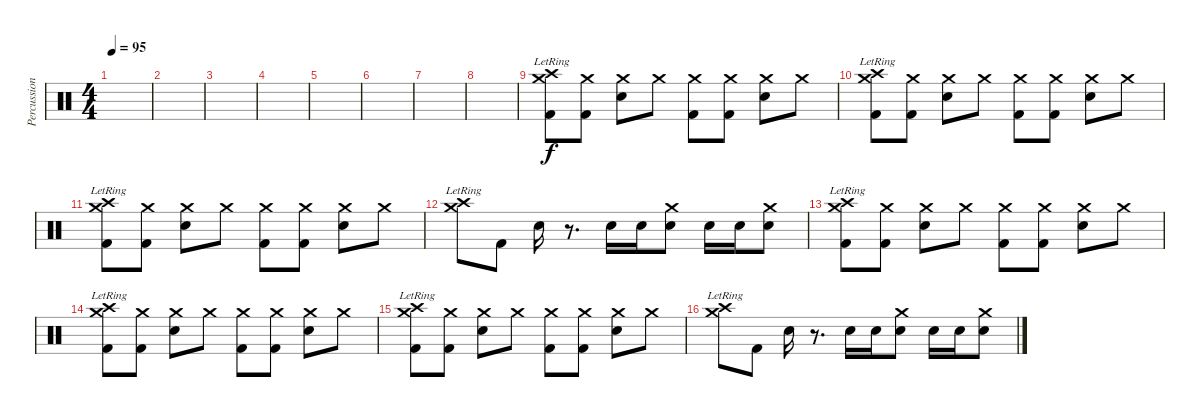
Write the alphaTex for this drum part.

\track ("Percussion" "Percussion") {instrument percussion}
\staff {score}
\articulation defaults
\ts (4 4)
\tempo 95
\clef neutral
\ks c
|
|
|
|
|
|
|
|
("Crash high (hit)"{lr} "Crash medium (hit)" "Kick (hit) 2").8 ("Crash medium (hit)" "Kick (hit) 2").8 ("Crash medium (hit)" "Electric Snare (hit)").8 "Crash medium (hit)".8 ("Crash medium (hit)" "Kick (hit) 2").8 ("Crash medium (hit)" "Kick (hit) 2").8 ("Crash medium (hit)" "Electric Snare (hit)").8 "Crash medium (hit)".8 |
("Crash high (hit)"{lr} "Crash medium (hit)" "Kick (hit) 2").8 ("Crash medium (hit)" "Kick (hit) 2").8 ("Crash medium (hit)" "Electric Snare (hit)").8 "Crash medium (hit)".8 ("Crash medium (hit)" "Kick (hit) 2").8 ("Crash medium (hit)" "Kick (hit) 2").8 ("Crash medium (hit)" "Electric Snare (hit)").8 "Crash medium (hit)".8 |
("Crash high (hit)"{lr} "Crash medium (hit)" "Kick (hit) 2").8 ("Crash medium (hit)" "Kick (hit) 2").8 ("Crash medium (hit)" "Electric Snare (hit)").8 "Crash medium (hit)".8 ("Crash medium (hit)" "Kick (hit) 2").8 ("Crash medium (hit)" "Kick (hit) 2").8 ("Crash medium (hit)" "Electric Snare (hit)").8 "Crash medium (hit)".8 |
("Crash high (hit)"{lr} "Crash medium (hit)"{lr}).8 "Kick (hit) 2".8 "Electric Snare (hit)".16 r.8{d} "Electric Snare (hit)".16 "Electric Snare (hit)".16 ("Crash medium (hit)" "Electric Snare (hit)").8 "Electric Snare (hit)".16 "Electric Snare (hit)".16 ("Crash medium (hit)" "Electric Snare (hit)").8 |
("Crash high (hit)"{lr} "Crash medium (hit)" "Kick (hit) 2").8 ("Crash medium (hit)" "Kick (hit) 2").8 ("Crash medium (hit)" "Electric Snare (hit)").8 "Crash medium (hit)".8 ("Crash medium (hit)" "Kick (hit) 2").8 ("Crash medium (hit)" "Kick (hit) 2").8 ("Crash medium (hit)" "Electric Snare (hit)").8 "Crash medium (hit)".8 |
("Crash high (hit)"{lr} "Crash medium (hit)" "Kick (hit) 2").8 ("Crash medium (hit)" "Kick (hit) 2").8 ("Crash medium (hit)" "Electric Snare (hit)").8 "Crash medium (hit)".8 ("Crash medium (hit)" "Kick (hit) 2").8 ("Crash medium (hit)" "Kick (hit) 2").8 ("Crash medium (hit)" "Electric Snare (hit)").8 "Crash medium (hit)".8 |
("Crash high (hit)"{lr} "Crash medium (hit)" "Kick (hit) 2").8 ("Crash medium (hit)" "Kick (hit) 2").8 ("Crash medium (hit)" "Electric Snare (hit)").8 "Crash medium (hit)".8 ("Crash medium (hit)" "Kick (hit) 2").8 ("Crash medium (hit)" "Kick (hit) 2").8 ("Crash medium (hit)" "Electric Snare (hit)").8 "Crash medium (hit)".8 |
("Crash high (hit)"{lr} "Crash medium (hit)"{lr}).8 "Kick (hit) 2".8 "Electric Snare (hit)".16 r.8{d} "Electric Snare (hit)".16 "Electric Snare (hit)".16 ("Crash medium (hit)" "Electric Snare (hit)").8 "Electric Snare (hit)".16 "Electric Snare (hit)".16 ("Crash medium (hit)" "Electric Snare (hit)").8
